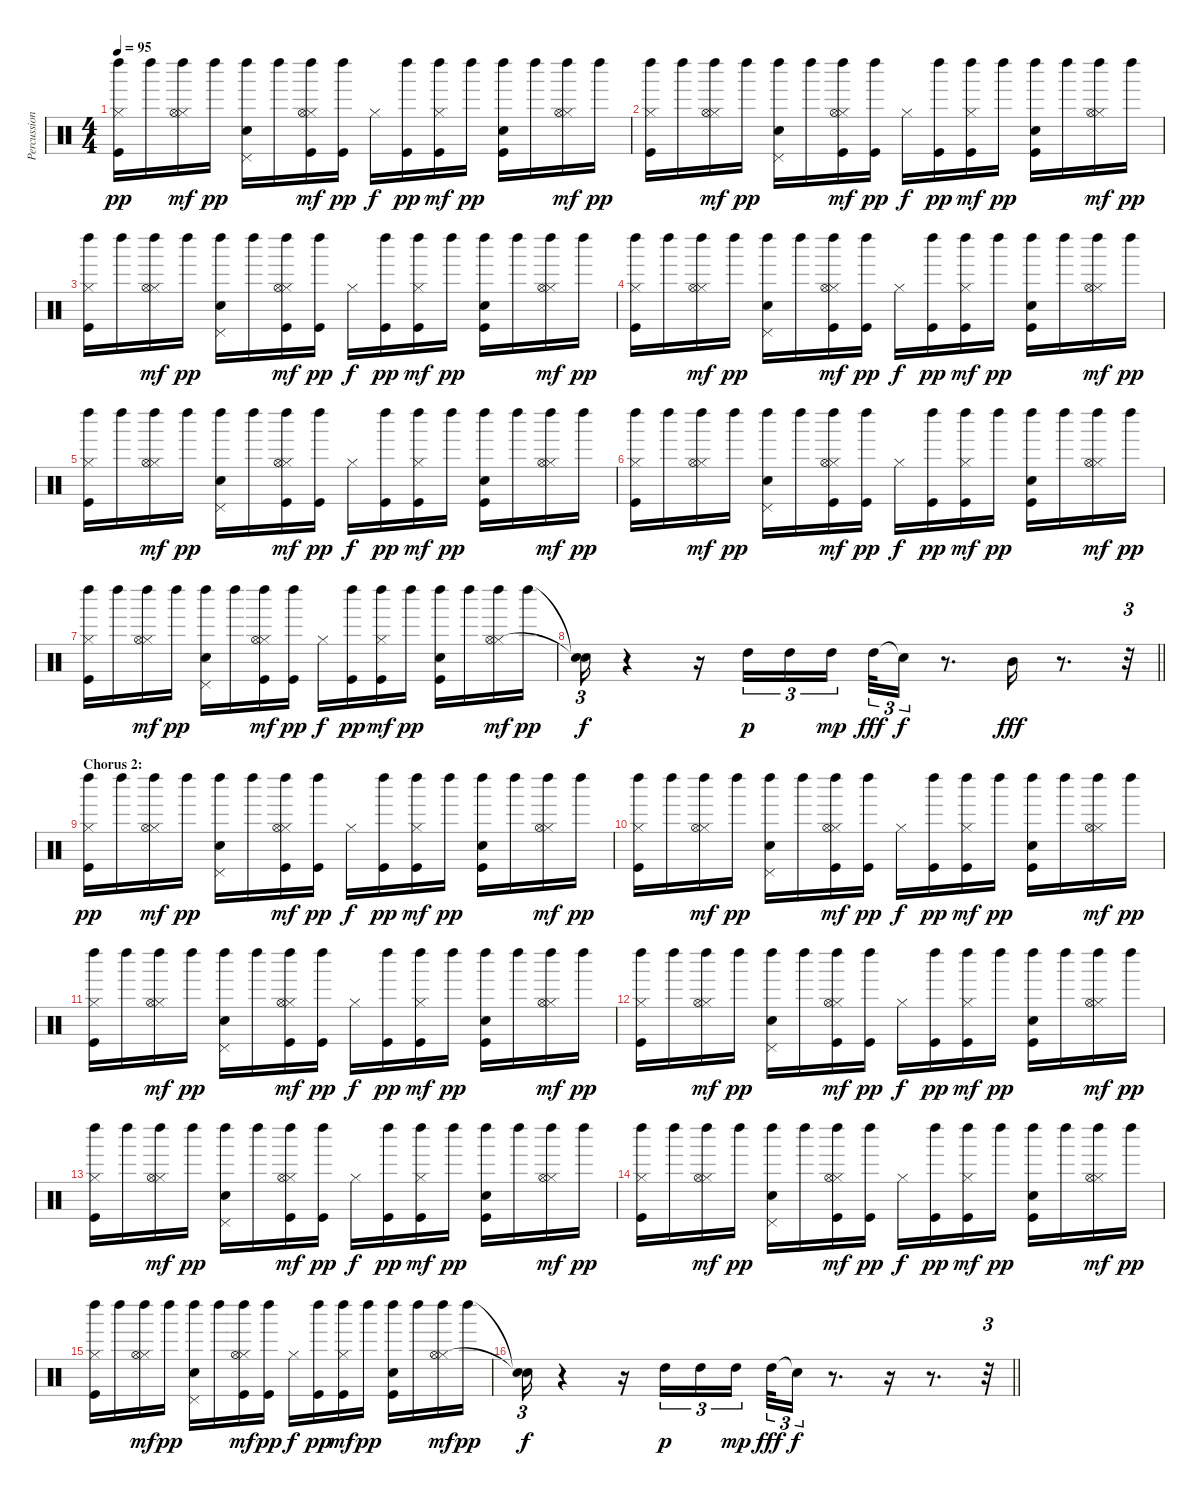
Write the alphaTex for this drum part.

\track ("Percussion" "Percussion") {instrument percussion}
\staff {score}
\articulation defaults
\ts (4 4)
\tempo 95
\clef neutral
\ks c
("Kick (hit)" "Hi-Hat (closed)" "Left Maraca (hit)").16{dy pp} "Left Maraca (hit)".16 ("Hi-Hat (closed)" "Hi-Hat (open)" "Left Maraca (hit)").16{dy mf} "Left Maraca (hit)".16{dy pp} ("Snare (hit) 2" "Pedal Hi-Hat (hit)" "Left Maraca (hit)").16 "Left Maraca (hit)".16 ("Kick (hit)" "Hi-Hat (closed)" "Hi-Hat (open)" "Left Maraca (hit)").16{dy mf} ("Left Maraca (hit)" "Kick (hit)").16{dy pp} "Hi-Hat (closed)".16{dy f} ("Left Maraca (hit)" "Kick (hit)").16{dy pp} ("Hi-Hat (closed)" "Kick (hit)" "Left Maraca (hit)").16{dy mf} "Left Maraca (hit)".16{dy pp} ("Snare (hit) 2" "Kick (hit)" "Left Maraca (hit)").16 "Left Maraca (hit)".16 ("Hi-Hat (closed)" "Hi-Hat (open)" "Left Maraca (hit)").16{dy mf} "Left Maraca (hit)".16{dy pp} |
("Kick (hit)" "Hi-Hat (closed)" "Left Maraca (hit)").16 "Left Maraca (hit)".16 ("Hi-Hat (closed)" "Hi-Hat (open)" "Left Maraca (hit)").16{dy mf} "Left Maraca (hit)".16{dy pp} ("Snare (hit) 2" "Pedal Hi-Hat (hit)" "Left Maraca (hit)").16 "Left Maraca (hit)".16 ("Kick (hit)" "Hi-Hat (closed)" "Hi-Hat (open)" "Left Maraca (hit)").16{dy mf} ("Left Maraca (hit)" "Kick (hit)").16{dy pp} "Hi-Hat (closed)".16{dy f} ("Left Maraca (hit)" "Kick (hit)").16{dy pp} ("Hi-Hat (closed)" "Kick (hit)" "Left Maraca (hit)").16{dy mf} "Left Maraca (hit)".16{dy pp} ("Snare (hit) 2" "Kick (hit)" "Left Maraca (hit)").16 "Left Maraca (hit)".16 ("Hi-Hat (closed)" "Hi-Hat (open)" "Left Maraca (hit)").16{dy mf} "Left Maraca (hit)".16{dy pp} |
("Kick (hit)" "Hi-Hat (closed)" "Left Maraca (hit)").16 "Left Maraca (hit)".16 ("Hi-Hat (closed)" "Hi-Hat (open)" "Left Maraca (hit)").16{dy mf} "Left Maraca (hit)".16{dy pp} ("Snare (hit) 2" "Pedal Hi-Hat (hit)" "Left Maraca (hit)").16 "Left Maraca (hit)".16 ("Kick (hit)" "Hi-Hat (closed)" "Hi-Hat (open)" "Left Maraca (hit)").16{dy mf} ("Left Maraca (hit)" "Kick (hit)").16{dy pp} "Hi-Hat (closed)".16{dy f} ("Left Maraca (hit)" "Kick (hit)").16{dy pp} ("Hi-Hat (closed)" "Kick (hit)" "Left Maraca (hit)").16{dy mf} "Left Maraca (hit)".16{dy pp} ("Snare (hit) 2" "Kick (hit)" "Left Maraca (hit)").16 "Left Maraca (hit)".16 ("Hi-Hat (closed)" "Hi-Hat (open)" "Left Maraca (hit)").16{dy mf} "Left Maraca (hit)".16{dy pp} |
("Kick (hit)" "Hi-Hat (closed)" "Left Maraca (hit)").16 "Left Maraca (hit)".16 ("Hi-Hat (closed)" "Hi-Hat (open)" "Left Maraca (hit)").16{dy mf} "Left Maraca (hit)".16{dy pp} ("Snare (hit) 2" "Pedal Hi-Hat (hit)" "Left Maraca (hit)").16 "Left Maraca (hit)".16 ("Kick (hit)" "Hi-Hat (closed)" "Hi-Hat (open)" "Left Maraca (hit)").16{dy mf} ("Left Maraca (hit)" "Kick (hit)").16{dy pp} "Hi-Hat (closed)".16{dy f} ("Left Maraca (hit)" "Kick (hit)").16{dy pp} ("Hi-Hat (closed)" "Kick (hit)" "Left Maraca (hit)").16{dy mf} "Left Maraca (hit)".16{dy pp} ("Snare (hit) 2" "Kick (hit)" "Left Maraca (hit)").16 "Left Maraca (hit)".16 ("Hi-Hat (closed)" "Hi-Hat (open)" "Left Maraca (hit)").16{dy mf} "Left Maraca (hit)".16{dy pp} |
("Kick (hit)" "Hi-Hat (closed)" "Left Maraca (hit)").16 "Left Maraca (hit)".16 ("Hi-Hat (closed)" "Hi-Hat (open)" "Left Maraca (hit)").16{dy mf} "Left Maraca (hit)".16{dy pp} ("Snare (hit) 2" "Pedal Hi-Hat (hit)" "Left Maraca (hit)").16 "Left Maraca (hit)".16 ("Kick (hit)" "Hi-Hat (closed)" "Hi-Hat (open)" "Left Maraca (hit)").16{dy mf} ("Left Maraca (hit)" "Kick (hit)").16{dy pp} "Hi-Hat (closed)".16{dy f} ("Left Maraca (hit)" "Kick (hit)").16{dy pp} ("Hi-Hat (closed)" "Kick (hit)" "Left Maraca (hit)").16{dy mf} "Left Maraca (hit)".16{dy pp} ("Snare (hit) 2" "Kick (hit)" "Left Maraca (hit)").16 "Left Maraca (hit)".16 ("Hi-Hat (closed)" "Hi-Hat (open)" "Left Maraca (hit)").16{dy mf} "Left Maraca (hit)".16{dy pp} |
("Kick (hit)" "Hi-Hat (closed)" "Left Maraca (hit)").16 "Left Maraca (hit)".16 ("Hi-Hat (closed)" "Hi-Hat (open)" "Left Maraca (hit)").16{dy mf} "Left Maraca (hit)".16{dy pp} ("Snare (hit) 2" "Pedal Hi-Hat (hit)" "Left Maraca (hit)").16 "Left Maraca (hit)".16 ("Kick (hit)" "Hi-Hat (closed)" "Hi-Hat (open)" "Left Maraca (hit)").16{dy mf} ("Left Maraca (hit)" "Kick (hit)").16{dy pp} "Hi-Hat (closed)".16{dy f} ("Left Maraca (hit)" "Kick (hit)").16{dy pp} ("Hi-Hat (closed)" "Kick (hit)" "Left Maraca (hit)").16{dy mf} "Left Maraca (hit)".16{dy pp} ("Snare (hit) 2" "Kick (hit)" "Left Maraca (hit)").16 "Left Maraca (hit)".16 ("Hi-Hat (closed)" "Hi-Hat (open)" "Left Maraca (hit)").16{dy mf} "Left Maraca (hit)".16{dy pp} |
("Kick (hit)" "Hi-Hat (closed)" "Left Maraca (hit)").16 "Left Maraca (hit)".16 ("Hi-Hat (closed)" "Hi-Hat (open)" "Left Maraca (hit)").16{dy mf} "Left Maraca (hit)".16{dy pp} ("Snare (hit) 2" "Pedal Hi-Hat (hit)" "Left Maraca (hit)").16 "Left Maraca (hit)".16 ("Kick (hit)" "Hi-Hat (closed)" "Hi-Hat (open)" "Left Maraca (hit)").16{dy mf} ("Left Maraca (hit)" "Kick (hit)").16{dy pp} "Hi-Hat (closed)".16{dy f} ("Left Maraca (hit)" "Kick (hit)").16{dy pp} ("Hi-Hat (closed)" "Kick (hit)" "Left Maraca (hit)").16{dy mf} "Left Maraca (hit)".16{dy pp} ("Snare (hit) 2" "Kick (hit)" "Left Maraca (hit)").16 "Left Maraca (hit)".16 ("Hi-Hat (closed)" "Hi-Hat (open)" "Left Maraca (hit)").16{dy mf} "Left Maraca (hit)".16{dy pp} |
\barLineRight lightlight
("Snare (hit)"{t} "Snare (hit)"{t}).16{tu (3 2) dy f} r.4 r.16 "High Tom (hit)".16{tu (3 2) dy p} "High Tom (hit)".16{tu (3 2)} "High Tom (hit)".16{tu (3 2) dy mp beam splitsecondary} "High Tom (hit)".32{tu (3 2) dy fff} "Snare (hit)"{t}.16{tu (3 2) dy f} r.8{d} "Mid Tom (hit)".16{dy fff} r.8{d} r.32{tu (3 2)} |
\section ("" "Chorus 2:")
("Kick (hit)" "Hi-Hat (closed)" "Left Maraca (hit)").16{dy pp} "Left Maraca (hit)".16 ("Hi-Hat (closed)" "Hi-Hat (open)" "Left Maraca (hit)").16{dy mf} "Left Maraca (hit)".16{dy pp} ("Snare (hit) 2" "Pedal Hi-Hat (hit)" "Left Maraca (hit)").16 "Left Maraca (hit)".16 ("Kick (hit)" "Hi-Hat (closed)" "Hi-Hat (open)" "Left Maraca (hit)").16{dy mf} ("Left Maraca (hit)" "Kick (hit)").16{dy pp} "Hi-Hat (closed)".16{dy f} ("Left Maraca (hit)" "Kick (hit)").16{dy pp} ("Hi-Hat (closed)" "Kick (hit)" "Left Maraca (hit)").16{dy mf} "Left Maraca (hit)".16{dy pp} ("Snare (hit) 2" "Kick (hit)" "Left Maraca (hit)").16 "Left Maraca (hit)".16 ("Hi-Hat (closed)" "Hi-Hat (open)" "Left Maraca (hit)").16{dy mf} "Left Maraca (hit)".16{dy pp} |
("Kick (hit)" "Hi-Hat (closed)" "Left Maraca (hit)").16 "Left Maraca (hit)".16 ("Hi-Hat (closed)" "Hi-Hat (open)" "Left Maraca (hit)").16{dy mf} "Left Maraca (hit)".16{dy pp} ("Snare (hit) 2" "Pedal Hi-Hat (hit)" "Left Maraca (hit)").16 "Left Maraca (hit)".16 ("Kick (hit)" "Hi-Hat (closed)" "Hi-Hat (open)" "Left Maraca (hit)").16{dy mf} ("Left Maraca (hit)" "Kick (hit)").16{dy pp} "Hi-Hat (closed)".16{dy f} ("Left Maraca (hit)" "Kick (hit)").16{dy pp} ("Hi-Hat (closed)" "Kick (hit)" "Left Maraca (hit)").16{dy mf} "Left Maraca (hit)".16{dy pp} ("Snare (hit) 2" "Kick (hit)" "Left Maraca (hit)").16 "Left Maraca (hit)".16 ("Hi-Hat (closed)" "Hi-Hat (open)" "Left Maraca (hit)").16{dy mf} "Left Maraca (hit)".16{dy pp} |
("Kick (hit)" "Hi-Hat (closed)" "Left Maraca (hit)").16 "Left Maraca (hit)".16 ("Hi-Hat (closed)" "Hi-Hat (open)" "Left Maraca (hit)").16{dy mf} "Left Maraca (hit)".16{dy pp} ("Snare (hit) 2" "Pedal Hi-Hat (hit)" "Left Maraca (hit)").16 "Left Maraca (hit)".16 ("Kick (hit)" "Hi-Hat (closed)" "Hi-Hat (open)" "Left Maraca (hit)").16{dy mf} ("Left Maraca (hit)" "Kick (hit)").16{dy pp} "Hi-Hat (closed)".16{dy f} ("Left Maraca (hit)" "Kick (hit)").16{dy pp} ("Hi-Hat (closed)" "Kick (hit)" "Left Maraca (hit)").16{dy mf} "Left Maraca (hit)".16{dy pp} ("Snare (hit) 2" "Kick (hit)" "Left Maraca (hit)").16 "Left Maraca (hit)".16 ("Hi-Hat (closed)" "Hi-Hat (open)" "Left Maraca (hit)").16{dy mf} "Left Maraca (hit)".16{dy pp} |
("Kick (hit)" "Hi-Hat (closed)" "Left Maraca (hit)").16 "Left Maraca (hit)".16 ("Hi-Hat (closed)" "Hi-Hat (open)" "Left Maraca (hit)").16{dy mf} "Left Maraca (hit)".16{dy pp} ("Snare (hit) 2" "Pedal Hi-Hat (hit)" "Left Maraca (hit)").16 "Left Maraca (hit)".16 ("Kick (hit)" "Hi-Hat (closed)" "Hi-Hat (open)" "Left Maraca (hit)").16{dy mf} ("Left Maraca (hit)" "Kick (hit)").16{dy pp} "Hi-Hat (closed)".16{dy f} ("Left Maraca (hit)" "Kick (hit)").16{dy pp} ("Hi-Hat (closed)" "Kick (hit)" "Left Maraca (hit)").16{dy mf} "Left Maraca (hit)".16{dy pp} ("Snare (hit) 2" "Kick (hit)" "Left Maraca (hit)").16 "Left Maraca (hit)".16 ("Hi-Hat (closed)" "Hi-Hat (open)" "Left Maraca (hit)").16{dy mf} "Left Maraca (hit)".16{dy pp} |
("Kick (hit)" "Hi-Hat (closed)" "Left Maraca (hit)").16 "Left Maraca (hit)".16 ("Hi-Hat (closed)" "Hi-Hat (open)" "Left Maraca (hit)").16{dy mf} "Left Maraca (hit)".16{dy pp} ("Snare (hit) 2" "Pedal Hi-Hat (hit)" "Left Maraca (hit)").16 "Left Maraca (hit)".16 ("Kick (hit)" "Hi-Hat (closed)" "Hi-Hat (open)" "Left Maraca (hit)").16{dy mf} ("Left Maraca (hit)" "Kick (hit)").16{dy pp} "Hi-Hat (closed)".16{dy f} ("Left Maraca (hit)" "Kick (hit)").16{dy pp} ("Hi-Hat (closed)" "Kick (hit)" "Left Maraca (hit)").16{dy mf} "Left Maraca (hit)".16{dy pp} ("Snare (hit) 2" "Kick (hit)" "Left Maraca (hit)").16 "Left Maraca (hit)".16 ("Hi-Hat (closed)" "Hi-Hat (open)" "Left Maraca (hit)").16{dy mf} "Left Maraca (hit)".16{dy pp} |
("Kick (hit)" "Hi-Hat (closed)" "Left Maraca (hit)").16 "Left Maraca (hit)".16 ("Hi-Hat (closed)" "Hi-Hat (open)" "Left Maraca (hit)").16{dy mf} "Left Maraca (hit)".16{dy pp} ("Snare (hit) 2" "Pedal Hi-Hat (hit)" "Left Maraca (hit)").16 "Left Maraca (hit)".16 ("Kick (hit)" "Hi-Hat (closed)" "Hi-Hat (open)" "Left Maraca (hit)").16{dy mf} ("Left Maraca (hit)" "Kick (hit)").16{dy pp} "Hi-Hat (closed)".16{dy f} ("Left Maraca (hit)" "Kick (hit)").16{dy pp} ("Hi-Hat (closed)" "Kick (hit)" "Left Maraca (hit)").16{dy mf} "Left Maraca (hit)".16{dy pp} ("Snare (hit) 2" "Kick (hit)" "Left Maraca (hit)").16 "Left Maraca (hit)".16 ("Hi-Hat (closed)" "Hi-Hat (open)" "Left Maraca (hit)").16{dy mf} "Left Maraca (hit)".16{dy pp} |
("Kick (hit)" "Hi-Hat (closed)" "Left Maraca (hit)").16 "Left Maraca (hit)".16 ("Hi-Hat (closed)" "Hi-Hat (open)" "Left Maraca (hit)").16{dy mf} "Left Maraca (hit)".16{dy pp} ("Snare (hit) 2" "Pedal Hi-Hat (hit)" "Left Maraca (hit)").16 "Left Maraca (hit)".16 ("Kick (hit)" "Hi-Hat (closed)" "Hi-Hat (open)" "Left Maraca (hit)").16{dy mf} ("Left Maraca (hit)" "Kick (hit)").16{dy pp} "Hi-Hat (closed)".16{dy f} ("Left Maraca (hit)" "Kick (hit)").16{dy pp} ("Hi-Hat (closed)" "Kick (hit)" "Left Maraca (hit)").16{dy mf} "Left Maraca (hit)".16{dy pp} ("Snare (hit) 2" "Kick (hit)" "Left Maraca (hit)").16 "Left Maraca (hit)".16 ("Hi-Hat (closed)" "Hi-Hat (open)" "Left Maraca (hit)").16{dy mf} "Left Maraca (hit)".16{dy pp} |
\barLineRight lightlight
("Snare (hit)"{t} "Snare (hit)"{t}).16{tu (3 2) dy f} r.4 r.16 "High Tom (hit)".16{tu (3 2) dy p} "High Tom (hit)".16{tu (3 2)} "High Tom (hit)".16{tu (3 2) dy mp beam splitsecondary} "High Tom (hit)".32{tu (3 2) dy fff} "Snare (hit)"{t}.16{tu (3 2) dy f} r.8{d} r.16 r.8{d} r.32{tu (3 2)}
